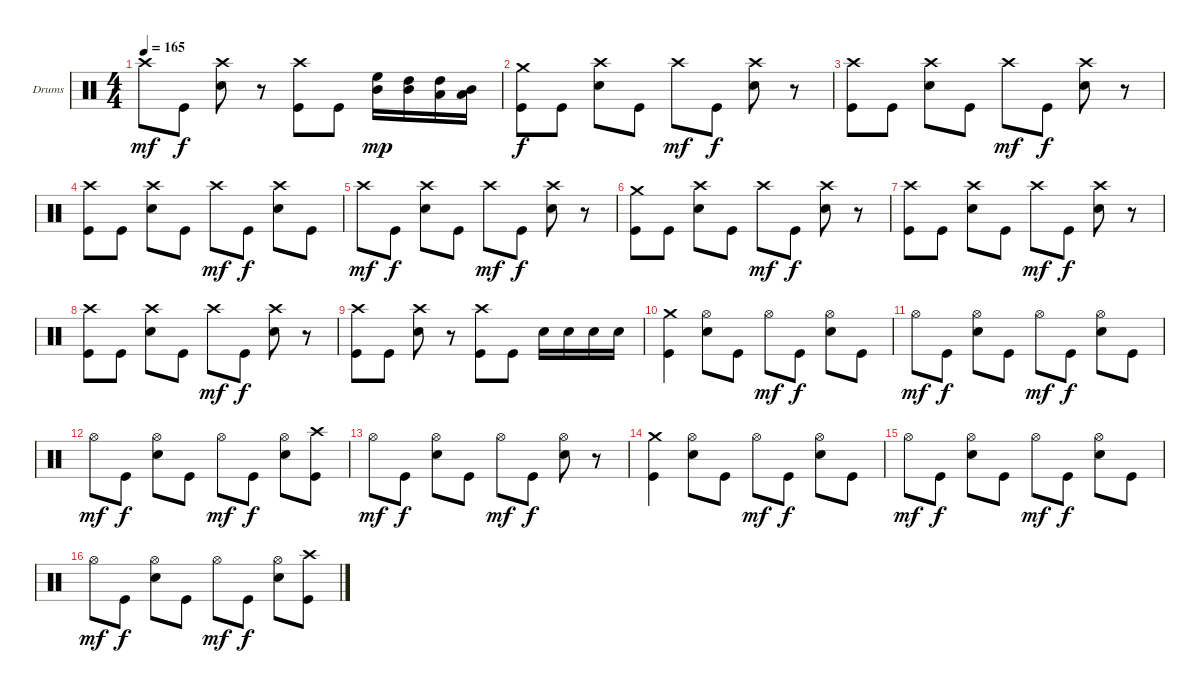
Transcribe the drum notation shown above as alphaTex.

\bracketExtendMode groupsimilarinstruments
\firstSystemTrackNameOrientation horizontal
\otherSystemsTrackNameOrientation horizontal
\track ("Drumkit" "Drums") {instrument percussion}
\staff {score}
\articulation defaults
\ts (4 4)
\tempo 165
\clef neutral
\ks c "Crash high (hit)".8{dy mf} "Kick (hit)".8{dy f}
("Snare (hit) 2" "Crash high (hit)").8 r.8 ("Kick (hit)" "Crash high (hit)").8 "Kick (hit)".8 ("High Floor Tom (hit)" "Mid Tom (hit)").16{dy mp} ("High Tom (hit)" "Mid Tom (hit)").16 ("High Tom (hit)" "Low Tom (hit)").16 ("Mid Tom (hit)" "Low Tom (hit)").16 |
("Kick (hit)" "Crash medium (hit)").8{dy f} "Kick (hit)".8 ("Snare (hit) 2" "Crash high (hit)").8 "Kick (hit)".8 "Crash high (hit)".8{dy mf} "Kick (hit)".8{dy f} ("Snare (hit) 2" "Crash high (hit)").8 r.8 |
("Kick (hit)" "Crash high (hit)").8 "Kick (hit)".8 ("Snare (hit) 2" "Crash high (hit)").8 "Kick (hit)".8 "Crash high (hit)".8{dy mf} "Kick (hit)".8{dy f} ("Snare (hit) 2" "Crash high (hit)").8 r.8 |
("Kick (hit)" "Crash high (hit)").8 "Kick (hit)".8 ("Snare (hit) 2" "Crash high (hit)").8 "Kick (hit)".8 "Crash high (hit)".8{dy mf} "Kick (hit)".8{dy f} ("Snare (hit) 2" "Crash high (hit)").8 "Kick (hit)".8 |
"Crash high (hit)".8{dy mf} "Kick (hit)".8{dy f} ("Snare (hit) 2" "Crash high (hit)").8 "Kick (hit)".8 "Crash high (hit)".8{dy mf} "Kick (hit)".8{dy f} ("Snare (hit) 2" "Crash high (hit)").8 r.8 |
("Kick (hit)" "Crash medium (hit)").8 "Kick (hit)".8 ("Snare (hit) 2" "Crash high (hit)").8 "Kick (hit)".8 "Crash high (hit)".8{dy mf} "Kick (hit)".8{dy f} ("Snare (hit) 2" "Crash high (hit)").8 r.8 |
("Kick (hit)" "Crash high (hit)").8 "Kick (hit)".8 ("Snare (hit) 2" "Crash high (hit)").8 "Kick (hit)".8 "Crash high (hit)".8{dy mf} "Kick (hit)".8{dy f} ("Snare (hit) 2" "Crash high (hit)").8 r.8 |
("Kick (hit)" "Crash high (hit)").8 "Kick (hit)".8 ("Snare (hit) 2" "Crash high (hit)").8 "Kick (hit)".8 "Crash high (hit)".8{dy mf} "Kick (hit)".8{dy f} ("Snare (hit) 2" "Crash high (hit)").8 r.8 |
("Kick (hit)" "Crash high (hit)").8 "Kick (hit)".8 ("Snare (hit) 2" "Crash high (hit)").8 r.8 ("Kick (hit)" "Crash high (hit)").8 "Kick (hit)".8 "Snare (hit) 2".16 "Snare (hit) 2".16 "Snare (hit) 2".16 "Snare (hit) 2".16 |
("Kick (hit)" "Crash medium (hit)").4 ("Snare (hit) 2" "Hi-Hat (open)").8 "Kick (hit)".8 "Hi-Hat (open)".8{dy mf} "Kick (hit)".8{dy f} ("Snare (hit) 2" "Hi-Hat (open)").8 "Kick (hit)".8 |
"Hi-Hat (open)".8{dy mf} "Kick (hit)".8{dy f} ("Snare (hit) 2" "Hi-Hat (open)").8 "Kick (hit)".8 "Hi-Hat (open)".8{dy mf} "Kick (hit)".8{dy f} ("Snare (hit) 2" "Hi-Hat (open)").8 "Kick (hit)".8 |
"Hi-Hat (open)".8{dy mf} "Kick (hit)".8{dy f} ("Snare (hit) 2" "Hi-Hat (open)").8 "Kick (hit)".8 "Hi-Hat (open)".8{dy mf} "Kick (hit)".8{dy f} ("Snare (hit) 2" "Hi-Hat (open)").8 ("Kick (hit)" "Crash high (hit)").8 |
"Hi-Hat (open)".8{dy mf} "Kick (hit)".8{dy f} ("Snare (hit) 2" "Hi-Hat (open)").8 "Kick (hit)".8 "Hi-Hat (open)".8{dy mf} "Kick (hit)".8{dy f} ("Snare (hit) 2" "Hi-Hat (open)").8 r.8 |
("Kick (hit)" "Crash medium (hit)").4 ("Snare (hit) 2" "Hi-Hat (open)").8 "Kick (hit)".8 "Hi-Hat (open)".8{dy mf} "Kick (hit)".8{dy f} ("Snare (hit) 2" "Hi-Hat (open)").8 "Kick (hit)".8 |
"Hi-Hat (open)".8{dy mf} "Kick (hit)".8{dy f} ("Snare (hit) 2" "Hi-Hat (open)").8 "Kick (hit)".8 "Hi-Hat (open)".8{dy mf} "Kick (hit)".8{dy f} ("Snare (hit) 2" "Hi-Hat (open)").8 "Kick (hit)".8 |
"Hi-Hat (open)".8{dy mf} "Kick (hit)".8{dy f} ("Snare (hit) 2" "Hi-Hat (open)").8 "Kick (hit)".8 "Hi-Hat (open)".8{dy mf} "Kick (hit)".8{dy f} ("Snare (hit) 2" "Hi-Hat (open)").8 ("Kick (hit)" "Crash high (hit)").8
